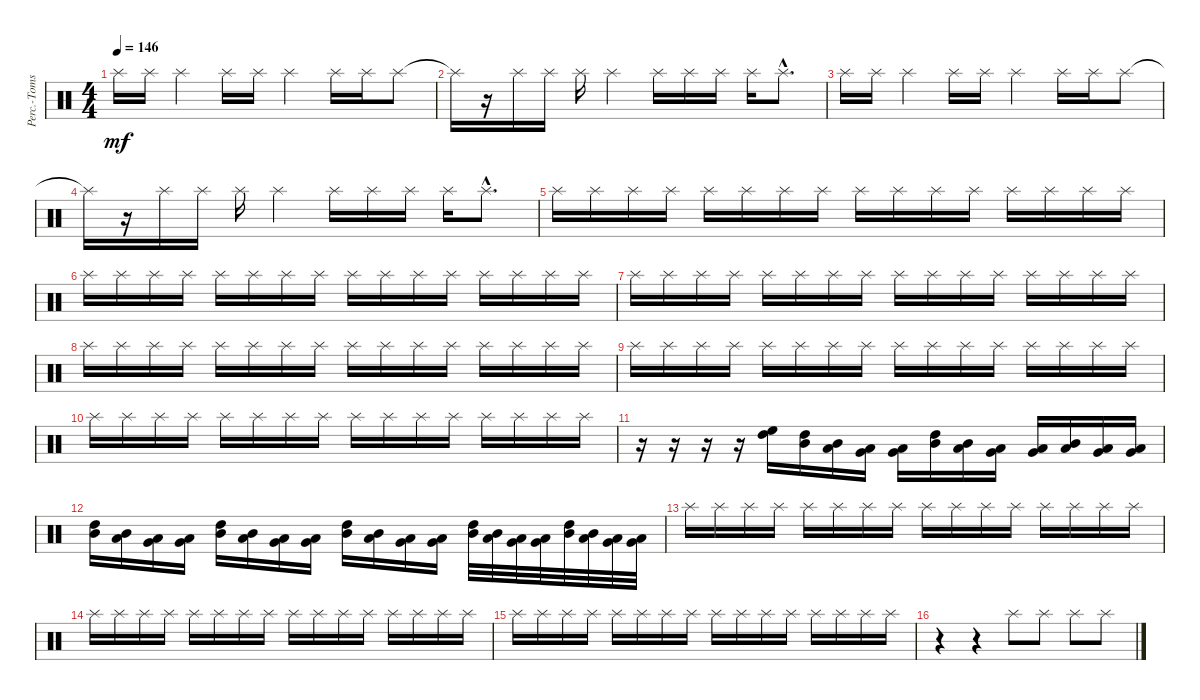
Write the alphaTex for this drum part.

\track ("Perc.-Toms/Cym.2" "Perc.-Toms") {instrument percussion}
\staff {score}
\articulation defaults
\ts (4 4)
\tempo 146
\clef neutral
\ks c "Splash (hit)".16{dy mf} "Splash (hit)".16 "Splash (hit)".4 "Splash (hit)".16 "Splash (hit)".16 "Splash (hit)".4 "Splash (hit)".16 "Splash (hit)".16 "Splash (hit)".8
|
"Splash (hit)"{t}.16 r.16 "Splash (hit)".16 "Splash (hit)".16 "Splash (hit)".16 "Splash (hit)".4 "Splash (hit)".16 "Splash (hit)".16 "Splash (hit)".16 "Splash (hit)".16 "Splash (hit)"{hac}.8{d} |
"Splash (hit)".16 "Splash (hit)".16 "Splash (hit)".4 "Splash (hit)".16 "Splash (hit)".16 "Splash (hit)".4 "Splash (hit)".16 "Splash (hit)".16 "Splash (hit)".8 |
"Splash (hit)"{t}.16 r.16 "Splash (hit)".16 "Splash (hit)".16 "Splash (hit)".16 "Splash (hit)".4 "Splash (hit)".16 "Splash (hit)".16 "Splash (hit)".16 "Splash (hit)".16 "Splash (hit)"{hac}.8{d} |
"Splash (hit)".16 "Splash (hit)".16 "Splash (hit)".16 "Splash (hit)".16 "Splash (hit)".16 "Splash (hit)".16 "Splash (hit)".16 "Splash (hit)".16 "Splash (hit)".16 "Splash (hit)".16 "Splash (hit)".16 "Splash (hit)".16 "Splash (hit)".16 "Splash (hit)".16 "Splash (hit)".16 "Splash (hit)".16 |
"Splash (hit)".16 "Splash (hit)".16 "Splash (hit)".16 "Splash (hit)".16 "Splash (hit)".16 "Splash (hit)".16 "Splash (hit)".16 "Splash (hit)".16 "Splash (hit)".16 "Splash (hit)".16 "Splash (hit)".16 "Splash (hit)".16 "Splash (hit)".16 "Splash (hit)".16 "Splash (hit)".16 "Splash (hit)".16 |
"Splash (hit)".16 "Splash (hit)".16 "Splash (hit)".16 "Splash (hit)".16 "Splash (hit)".16 "Splash (hit)".16 "Splash (hit)".16 "Splash (hit)".16 "Splash (hit)".16 "Splash (hit)".16 "Splash (hit)".16 "Splash (hit)".16 "Splash (hit)".16 "Splash (hit)".16 "Splash (hit)".16 "Splash (hit)".16 |
"Splash (hit)".16 "Splash (hit)".16 "Splash (hit)".16 "Splash (hit)".16 "Splash (hit)".16 "Splash (hit)".16 "Splash (hit)".16 "Splash (hit)".16 "Splash (hit)".16 "Splash (hit)".16 "Splash (hit)".16 "Splash (hit)".16 "Splash (hit)".16 "Splash (hit)".16 "Splash (hit)".16 "Splash (hit)".16 |
"Splash (hit)".16 "Splash (hit)".16 "Splash (hit)".16 "Splash (hit)".16 "Splash (hit)".16 "Splash (hit)".16 "Splash (hit)".16 "Splash (hit)".16 "Splash (hit)".16 "Splash (hit)".16 "Splash (hit)".16 "Splash (hit)".16 "Splash (hit)".16 "Splash (hit)".16 "Splash (hit)".16 "Splash (hit)".16 |
"Splash (hit)".16 "Splash (hit)".16 "Splash (hit)".16 "Splash (hit)".16 "Splash (hit)".16 "Splash (hit)".16 "Splash (hit)".16 "Splash (hit)".16 "Splash (hit)".16 "Splash (hit)".16 "Splash (hit)".16 "Splash (hit)".16 "Splash (hit)".16 "Splash (hit)".16 "Splash (hit)".16 "Splash (hit)".16 |
r.16 r.16 r.16 r.16 ("High Floor Tom (hit)" "High Tom (hit)").16 ("High Tom (hit)" "Mid Tom (hit)").16 ("Mid Tom (hit)" "Low Tom (hit)").16 ("Low Tom (hit)" "Very Low Tom (hit)").16 ("Very Low Tom (hit)" "Low Floor Tom (hit)").16 ("High Tom (hit)" "Mid Tom (hit)").16 ("Mid Tom (hit)" "Low Tom (hit)").16 ("Low Tom (hit)" "Very Low Tom (hit)").16 ("Very Low Tom (hit)" "Low Floor Tom (hit)").16 ("Mid Tom (hit)" "Low Tom (hit)").16 ("Low Tom (hit)" "Very Low Tom (hit)").16 ("Very Low Tom (hit)" "Low Floor Tom (hit)").16 |
("High Tom (hit)" "Mid Tom (hit)").16 ("Mid Tom (hit)" "Low Tom (hit)").16 ("Low Tom (hit)" "Very Low Tom (hit)").16 ("Very Low Tom (hit)" "Low Floor Tom (hit)").16 ("High Tom (hit)" "Mid Tom (hit)").16 ("Mid Tom (hit)" "Low Tom (hit)").16 ("Low Tom (hit)" "Very Low Tom (hit)").16 ("Very Low Tom (hit)" "Low Floor Tom (hit)").16 ("High Tom (hit)" "Mid Tom (hit)").16 ("Mid Tom (hit)" "Low Tom (hit)").16 ("Low Tom (hit)" "Very Low Tom (hit)").16 ("Very Low Tom (hit)" "Low Floor Tom (hit)").16 ("High Tom (hit)" "Mid Tom (hit)").32 ("Mid Tom (hit)" "Low Tom (hit)").32 ("Low Tom (hit)" "Very Low Tom (hit)").32 ("Very Low Tom (hit)" "Low Floor Tom (hit)").32 ("High Tom (hit)" "Mid Tom (hit)").32 ("Mid Tom (hit)" "Low Tom (hit)").32 ("Low Tom (hit)" "Very Low Tom (hit)").32 ("Very Low Tom (hit)" "Low Floor Tom (hit)").32 |
"Splash (hit)".16 "Splash (hit)".16 "Splash (hit)".16 "Splash (hit)".16 "Splash (hit)".16 "Splash (hit)".16 "Splash (hit)".16 "Splash (hit)".16 "Splash (hit)".16 "Splash (hit)".16 "Splash (hit)".16 "Splash (hit)".16 "Splash (hit)".16 "Splash (hit)".16 "Splash (hit)".16 "Splash (hit)".16 |
"Splash (hit)".16 "Splash (hit)".16 "Splash (hit)".16 "Splash (hit)".16 "Splash (hit)".16 "Splash (hit)".16 "Splash (hit)".16 "Splash (hit)".16 "Splash (hit)".16 "Splash (hit)".16 "Splash (hit)".16 "Splash (hit)".16 "Splash (hit)".16 "Splash (hit)".16 "Splash (hit)".16 "Splash (hit)".16 |
"Splash (hit)".16 "Splash (hit)".16 "Splash (hit)".16 "Splash (hit)".16 "Splash (hit)".16 "Splash (hit)".16 "Splash (hit)".16 "Splash (hit)".16 "Splash (hit)".16 "Splash (hit)".16 "Splash (hit)".16 "Splash (hit)".16 "Splash (hit)".16 "Splash (hit)".16 "Splash (hit)".16 "Splash (hit)".16 |
r.4 r.4 "Splash (hit)".8 "Splash (hit)".8 "Splash (hit)".8 "Splash (hit)".8
